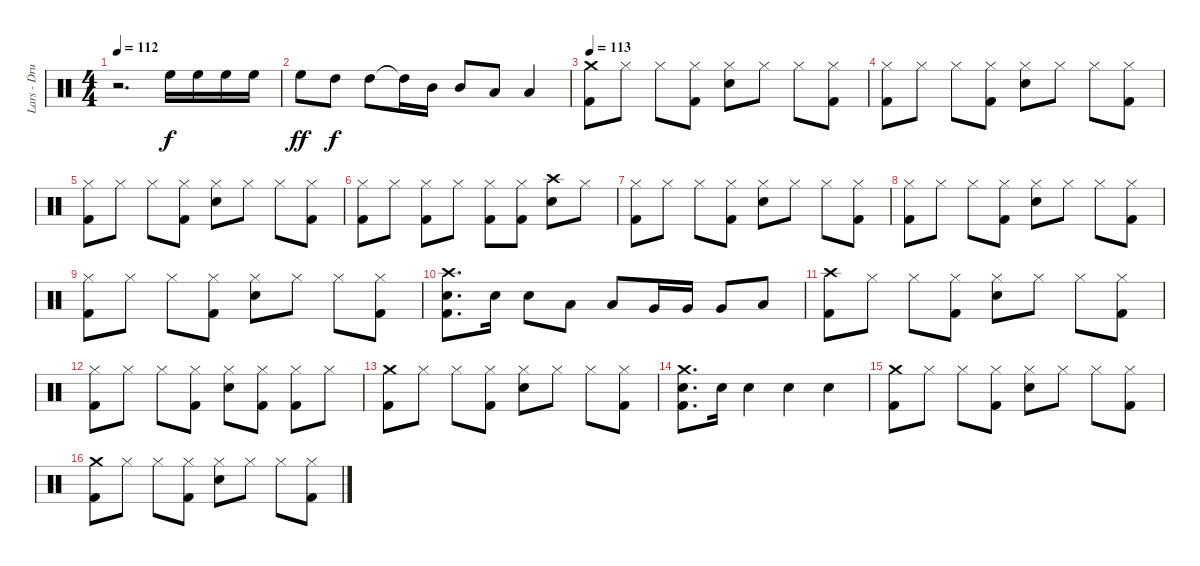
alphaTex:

\track ("Lars - Drums" "Lars - Dru") {instrument percussion}
\staff {score}
\articulation defaults
\ts (4 4)
\tempo 112
\clef neutral
\ks c
r.2{d dy f} "High Floor Tom (hit)".16{volume 16} "High Floor Tom (hit)".16 "High Floor Tom (hit)".16 "High Floor Tom (hit)".16 |
"High Floor Tom (hit)".8{dy ff} "High Tom (hit)".8{dy f} "High Tom (hit)".8 "High Tom (hit)"{t}.16 "Mid Tom (hit)".16 "Mid Tom (hit)".8 "Low Tom (hit)".8 "Low Tom (hit)".4 |
\tempo 113
("Crash medium (hit)" "Kick (hit) 2").8{volume 12} "Hi-Hat (closed)".8 "Hi-Hat (closed)".8 ("Hi-Hat (closed)" "Kick (hit) 2").8 ("Hi-Hat (closed)" "Snare (hit) 2").8 "Hi-Hat (closed)".8 "Hi-Hat (closed)".8 ("Hi-Hat (closed)" "Kick (hit) 2").8 |
("Hi-Hat (closed)" "Kick (hit) 2").8 "Hi-Hat (closed)".8 "Hi-Hat (closed)".8 ("Hi-Hat (closed)" "Kick (hit) 2").8 ("Hi-Hat (closed)" "Snare (hit) 2").8 "Hi-Hat (closed)".8 "Hi-Hat (closed)".8 ("Hi-Hat (closed)" "Kick (hit) 2").8 |
("Hi-Hat (closed)" "Kick (hit) 2").8 "Hi-Hat (closed)".8 "Hi-Hat (closed)".8 ("Hi-Hat (closed)" "Kick (hit) 2").8 ("Hi-Hat (closed)" "Snare (hit) 2").8 "Hi-Hat (closed)".8 "Hi-Hat (closed)".8 ("Hi-Hat (closed)" "Kick (hit) 2").8 |
("Hi-Hat (closed)" "Kick (hit) 2").8 "Hi-Hat (closed)".8 ("Hi-Hat (closed)" "Kick (hit) 2").8 "Hi-Hat (closed)".8 ("Hi-Hat (closed)" "Kick (hit) 2").8 ("Hi-Hat (closed)" "Kick (hit) 2").8 ("Crash high (hit)" "Snare (hit) 2").8 "Hi-Hat (closed)".8 |
("Hi-Hat (closed)" "Kick (hit) 2").8 "Hi-Hat (closed)".8 "Hi-Hat (closed)".8 ("Hi-Hat (closed)" "Kick (hit) 2").8 ("Hi-Hat (closed)" "Snare (hit) 2").8 "Hi-Hat (closed)".8 "Hi-Hat (closed)".8 ("Hi-Hat (closed)" "Kick (hit) 2").8 |
("Hi-Hat (closed)" "Kick (hit) 2").8 "Hi-Hat (closed)".8 "Hi-Hat (closed)".8 ("Hi-Hat (closed)" "Kick (hit) 2").8 ("Hi-Hat (closed)" "Snare (hit) 2").8 "Hi-Hat (closed)".8 "Hi-Hat (closed)".8 ("Hi-Hat (closed)" "Kick (hit) 2").8 |
("Hi-Hat (closed)" "Kick (hit) 2").8 "Hi-Hat (closed)".8 "Hi-Hat (closed)".8 ("Hi-Hat (closed)" "Kick (hit) 2").8 ("Hi-Hat (closed)" "Snare (hit) 2").8 "Hi-Hat (closed)".8 "Hi-Hat (closed)".8 ("Hi-Hat (closed)" "Kick (hit) 2").8 |
("Crash high (hit)" "Snare (hit) 2" "Kick (hit) 2").8{d} "Snare (hit) 2".16 "Snare (hit) 2".8 "Low Tom (hit)".8 "Low Tom (hit)".8 "Very Low Tom (hit)".16 "Very Low Tom (hit)".16 "Very Low Tom (hit)".8 "Low Floor Tom (hit)".8 |
("Crash high (hit)" "Kick (hit) 2").8 "Hi-Hat (closed)".8 "Hi-Hat (closed)".8 ("Hi-Hat (closed)" "Kick (hit) 2").8 ("Hi-Hat (closed)" "Snare (hit) 2").8 "Hi-Hat (closed)".8 "Hi-Hat (closed)".8 ("Hi-Hat (closed)" "Kick (hit) 2").8 |
("Hi-Hat (closed)" "Kick (hit) 2").8 "Hi-Hat (closed)".8 "Hi-Hat (closed)".8 ("Hi-Hat (closed)" "Kick (hit) 2").8 ("Hi-Hat (closed)" "Snare (hit) 2").8 ("Hi-Hat (closed)" "Kick (hit) 2").8 ("Hi-Hat (closed)" "Kick (hit) 2").8 "Hi-Hat (closed)".8 |
("Crash medium (hit)" "Kick (hit) 2").8 "Hi-Hat (closed)".8 "Hi-Hat (closed)".8 ("Hi-Hat (closed)" "Kick (hit) 2").8 ("Hi-Hat (closed)" "Snare (hit) 2").8 "Hi-Hat (closed)".8 "Hi-Hat (closed)".8 ("Hi-Hat (closed)" "Kick (hit) 2").8 |
("Crash medium (hit)" "Snare (hit) 2" "Kick (hit) 2").8{d} "Snare (hit) 2".16 "Snare (hit) 2".4 "Snare (hit) 2".4 "Snare (hit) 2".4 |
("Crash medium (hit)" "Kick (hit) 2").8 "Hi-Hat (closed)".8 "Hi-Hat (closed)".8 ("Hi-Hat (closed)" "Kick (hit) 2").8 ("Hi-Hat (closed)" "Snare (hit) 2").8 "Hi-Hat (closed)".8 "Hi-Hat (closed)".8 ("Hi-Hat (closed)" "Kick (hit) 2").8 |
("Crash medium (hit)" "Kick (hit) 2").8 "Hi-Hat (closed)".8 "Hi-Hat (closed)".8 ("Hi-Hat (closed)" "Kick (hit) 2").8 ("Hi-Hat (closed)" "Snare (hit) 2").8 "Hi-Hat (closed)".8 "Hi-Hat (closed)".8 ("Hi-Hat (closed)" "Kick (hit) 2").8
